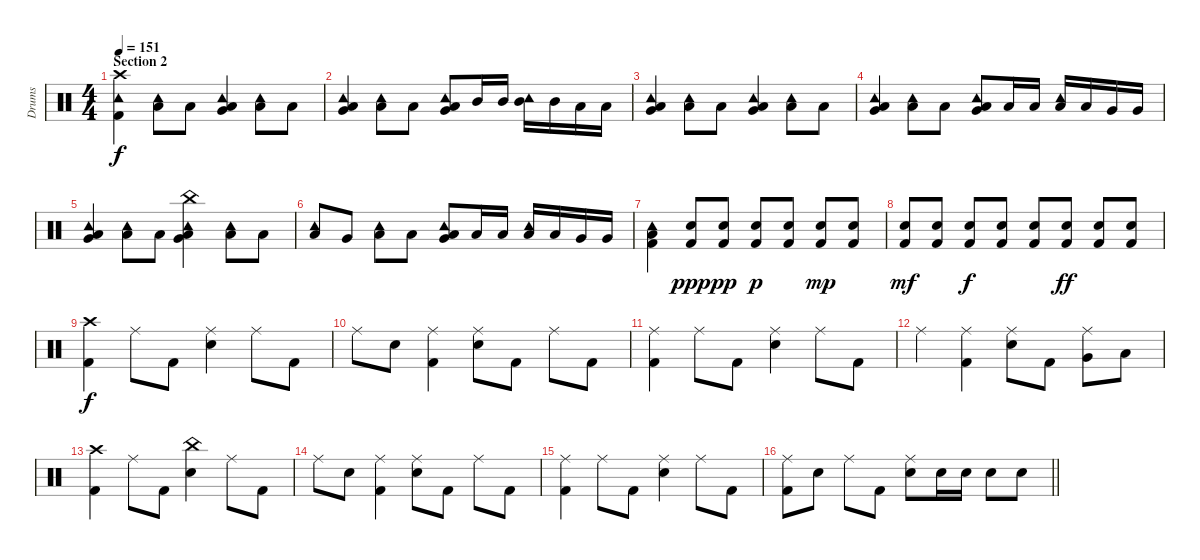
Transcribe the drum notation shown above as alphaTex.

\track ("Drums" "Drums") {instrument percussion}
\staff {score}
\articulation defaults
\ts (4 4)
\section ("" "Section 2")
\tempo 151
\clef neutral
\ks c
("Crash high (hit)" "Tambourine (hit)" "Kick (hit) 2").4{dy f} ("Tambourine (hit)" "Low Floor Tom (hit)").8 "Low Floor Tom (hit)".8 ("Tambourine (hit)" "Low Tom (hit)" "Very Low Tom (hit)").4 ("Tambourine (hit)" "Low Floor Tom (hit)").8 "Low Floor Tom (hit)".8 |
("Tambourine (hit)" "Very Low Tom (hit)" "Low Floor Tom (hit)").4 ("Tambourine (hit)" "Low Floor Tom (hit)").8 "Low Floor Tom (hit)".8 ("Tambourine (hit)" "Low Tom (hit)" "Very Low Tom (hit)").8 "Mid Tom (hit)".16 "Mid Tom (hit)".16 ("Tambourine (hit)" "Mid Tom (hit)").16 "Mid Tom (hit)".16 "Low Tom (hit)".16 "Low Tom (hit)".16 |
("Tambourine (hit)" "Very Low Tom (hit)" "Low Floor Tom (hit)").4 ("Tambourine (hit)" "Low Floor Tom (hit)").8 "Low Floor Tom (hit)".8 ("Tambourine (hit)" "Low Tom (hit)" "Very Low Tom (hit)").4 ("Tambourine (hit)" "Low Floor Tom (hit)").8 "Low Floor Tom (hit)".8 |
("Tambourine (hit)" "Very Low Tom (hit)" "Low Floor Tom (hit)").4 ("Tambourine (hit)" "Low Floor Tom (hit)").8 "Low Floor Tom (hit)".8 ("Tambourine (hit)" "Low Tom (hit)" "Very Low Tom (hit)").8 "Low Tom (hit)".16 "Low Tom (hit)".16 ("Tambourine (hit)" "Low Tom (hit)").16 "Low Tom (hit)".16 "Very Low Tom (hit)".16 "Very Low Tom (hit)".16 |
("Tambourine (hit)" "Very Low Tom (hit)" "Low Floor Tom (hit)").4 ("Tambourine (hit)" "Low Floor Tom (hit)").8 "Low Floor Tom (hit)".8 ("China (hit)" "Tambourine (hit)" "Low Tom (hit)" "Very Low Tom (hit)").4 ("Tambourine (hit)" "Low Floor Tom (hit)").8 "Low Floor Tom (hit)".8 |
("Tambourine (hit)" "Low Floor Tom (hit)").8 "Very Low Tom (hit)".8 ("Tambourine (hit)" "Low Floor Tom (hit)").8 "Low Floor Tom (hit)".8 ("Tambourine (hit)" "Low Tom (hit)" "Very Low Tom (hit)").8 "Low Tom (hit)".16 "Low Tom (hit)".16 ("Tambourine (hit)" "Low Tom (hit)").16 "Low Tom (hit)".16 "Very Low Tom (hit)".16 "Very Low Tom (hit)".16 |
("Tambourine (hit)" "Low Floor Tom (hit)" "Kick (hit) 2").4 ("Snare (hit) 2" "Kick (hit) 2").8{dy ppp} ("Snare (hit) 2" "Kick (hit) 2").8{dy pp} ("Snare (hit) 2" "Kick (hit) 2").8{dy p} ("Snare (hit) 2" "Kick (hit) 2").8 ("Snare (hit) 2" "Kick (hit) 2").8{dy mp} ("Snare (hit) 2" "Kick (hit) 2").8 |
("Snare (hit) 2" "Kick (hit) 2").8{dy mf} ("Snare (hit) 2" "Kick (hit) 2").8 ("Snare (hit) 2" "Kick (hit) 2").8{dy f} ("Snare (hit) 2" "Kick (hit) 2").8 ("Snare (hit) 2" "Kick (hit) 2").8 ("Snare (hit) 2" "Kick (hit) 2").8{dy ff} ("Snare (hit) 2" "Kick (hit) 2").8 ("Snare (hit) 2" "Kick (hit) 2").8 |
("Crash high (hit)" "Kick (hit) 2").4{dy f} "Ride (middle)".8 "Kick (hit) 2".8 ("Ride (middle)" "Snare (hit) 2").4 "Ride (middle)".8 "Kick (hit) 2".8 |
"Ride (middle)".8 "Snare (hit) 2".8 ("Ride (middle)" "Kick (hit) 2").4 ("Ride (middle)" "Snare (hit) 2").8 "Kick (hit) 2".8 "Ride (middle)".8 "Kick (hit) 2".8 |
("Ride (middle)" "Kick (hit) 2").4 "Ride (middle)".8 "Kick (hit) 2".8 ("Ride (middle)" "Snare (hit) 2").4 "Ride (middle)".8 "Kick (hit) 2".8 |
"Ride (middle)".4 ("Ride (middle)" "Kick (hit) 2").4 ("Ride (middle)" "Snare (hit) 2").8 "Kick (hit) 2".8 ("Ride (middle)" "Very Low Tom (hit)").8 "Low Floor Tom (hit)".8 |
("Crash high (hit)" "Kick (hit) 2").4 "Ride (middle)".8 "Kick (hit) 2".8 ("China (hit)" "Snare (hit) 2").4 "Ride (middle)".8 "Kick (hit) 2".8 |
"Ride (middle)".8 "Snare (hit) 2".8 ("Ride (middle)" "Kick (hit) 2").4 ("Ride (middle)" "Snare (hit) 2").8 "Kick (hit) 2".8 "Ride (middle)".8 "Kick (hit) 2".8 |
("Ride (middle)" "Kick (hit) 2").4 "Ride (middle)".8 "Kick (hit) 2".8 ("Ride (middle)" "Snare (hit) 2").4 "Ride (middle)".8 "Kick (hit) 2".8 |
\barLineRight lightlight
("Ride (middle)" "Kick (hit) 2").8 "Snare (hit) 2".8 "Ride (middle)".8 "Kick (hit) 2".8 ("Ride (middle)" "Snare (hit) 2").8 "Snare (hit) 2".16 "Snare (hit) 2".16 "Snare (hit) 2".8 "Snare (hit) 2".8
